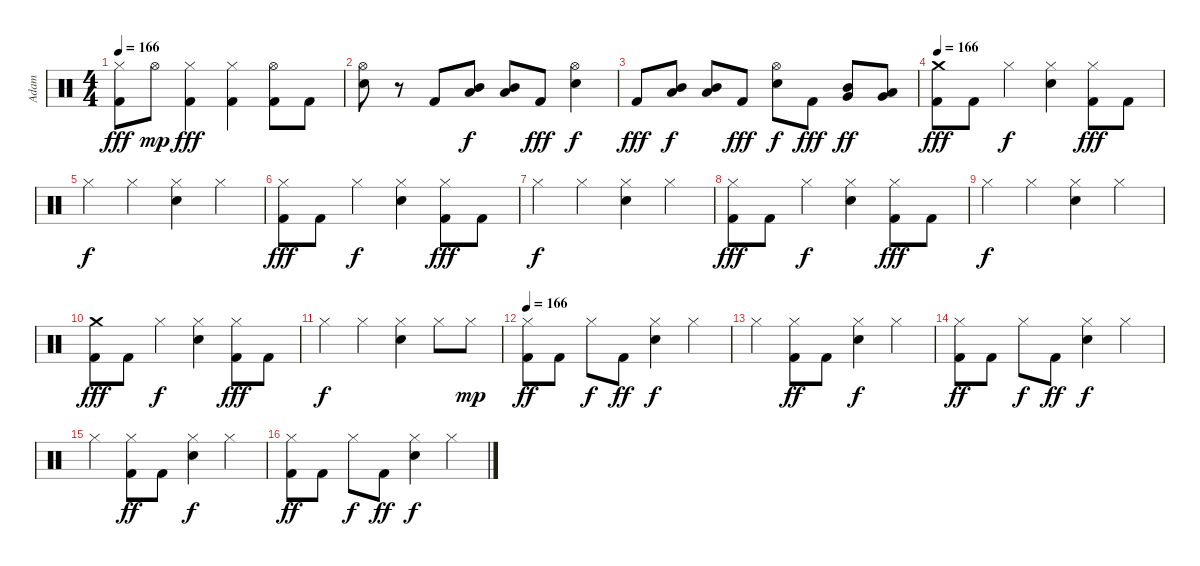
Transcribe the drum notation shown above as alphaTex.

\track ("Adam" "Adam") {instrument percussion}
\staff {score}
\articulation defaults
\ts (4 4)
\tempo 166
\clef neutral
\ks c
("Hi-Hat (closed)" "Kick (hit) 2").8{dy fff} "Hi-Hat (open)".8{dy mp} ("Hi-Hat (closed)" "Kick (hit) 2").4{dy fff} ("Hi-Hat (closed)" "Kick (hit) 2").4 ("Hi-Hat (open)" "Kick (hit) 2").8 "Kick (hit) 2".8 |
("Hi-Hat (open)" "Electric Snare (hit)").8 r.8 "Kick (hit) 2".8 ("Mid Tom (hit)" "Low Tom (hit)").8{dy f} ("Mid Tom (hit)" "Low Tom (hit)").8 "Kick (hit) 2".8{dy fff} ("Hi-Hat (open)" "Electric Snare (hit)").4{dy f} |
"Kick (hit) 2".8{dy fff} ("Mid Tom (hit)" "Low Tom (hit)").8{dy f} ("Mid Tom (hit)" "Low Tom (hit)").8 "Kick (hit) 2".8{dy fff} ("Hi-Hat (open)" "Electric Snare (hit)").8{dy f} "Kick (hit) 2".8{dy fff} ("Mid Tom (hit)" "Very Low Tom (hit)").8{dy ff} ("Low Tom (hit)" "Very Low Tom (hit)").8 |
\tempo 166
("Crash medium (hit)" "Kick (hit) 2").8{dy fff} "Kick (hit) 2".8 "Hi-Hat (closed)".4{dy f} ("Hi-Hat (closed)" "Electric Snare (hit)").4 ("Hi-Hat (closed)" "Kick (hit) 2").8{dy fff} "Kick (hit) 2".8 |
"Hi-Hat (closed)".4{dy f} "Hi-Hat (closed)".4 ("Hi-Hat (closed)" "Electric Snare (hit)").4 "Hi-Hat (closed)".4 |
("Hi-Hat (closed)" "Kick (hit) 2").8{dy fff} "Kick (hit) 2".8 "Hi-Hat (closed)".4{dy f} ("Hi-Hat (closed)" "Electric Snare (hit)").4 ("Hi-Hat (closed)" "Kick (hit) 2").8{dy fff} "Kick (hit) 2".8 |
"Hi-Hat (closed)".4{dy f} "Hi-Hat (closed)".4 ("Hi-Hat (closed)" "Electric Snare (hit)").4 "Hi-Hat (closed)".4 |
("Hi-Hat (closed)" "Kick (hit) 2").8{dy fff} "Kick (hit) 2".8 "Hi-Hat (closed)".4{dy f} ("Hi-Hat (closed)" "Electric Snare (hit)").4 ("Hi-Hat (closed)" "Kick (hit) 2").8{dy fff} "Kick (hit) 2".8 |
"Hi-Hat (closed)".4{dy f} "Hi-Hat (closed)".4 ("Hi-Hat (closed)" "Electric Snare (hit)").4 "Hi-Hat (closed)".4 |
("Crash medium (hit)" "Kick (hit) 2").8{dy fff} "Kick (hit) 2".8 "Hi-Hat (closed)".4{dy f} ("Hi-Hat (closed)" "Electric Snare (hit)").4 ("Hi-Hat (closed)" "Kick (hit) 2").8{dy fff} "Kick (hit) 2".8 |
"Hi-Hat (closed)".4{dy f} "Hi-Hat (closed)".4 ("Hi-Hat (closed)" "Electric Snare (hit)").4 "Hi-Hat (closed)".8 "Hi-Hat (closed)".8{dy mp} |
\tempo 168
\tempo 166
("Hi-Hat (closed)" "Kick (hit) 2").8{dy ff} "Kick (hit) 2".8 "Hi-Hat (closed)".8{dy f} "Kick (hit) 2".8{dy ff} ("Hi-Hat (closed)" "Electric Snare (hit)").4{dy f} "Hi-Hat (closed)".4 |
"Hi-Hat (closed)".4 ("Hi-Hat (closed)" "Kick (hit) 2").8{dy ff} "Kick (hit) 2".8 ("Hi-Hat (closed)" "Electric Snare (hit)").4{dy f} "Hi-Hat (closed)".4 |
("Hi-Hat (closed)" "Kick (hit) 2").8{dy ff} "Kick (hit) 2".8 "Hi-Hat (closed)".8{dy f} "Kick (hit) 2".8{dy ff} ("Hi-Hat (closed)" "Electric Snare (hit)").4{dy f} "Hi-Hat (closed)".4 |
"Hi-Hat (closed)".4 ("Hi-Hat (closed)" "Kick (hit) 2").8{dy ff} "Kick (hit) 2".8 ("Hi-Hat (closed)" "Electric Snare (hit)").4{dy f} "Hi-Hat (closed)".4 |
("Hi-Hat (closed)" "Kick (hit) 2").8{dy ff} "Kick (hit) 2".8 "Hi-Hat (closed)".8{dy f} "Kick (hit) 2".8{dy ff} ("Hi-Hat (closed)" "Electric Snare (hit)").4{dy f} "Hi-Hat (closed)".4
